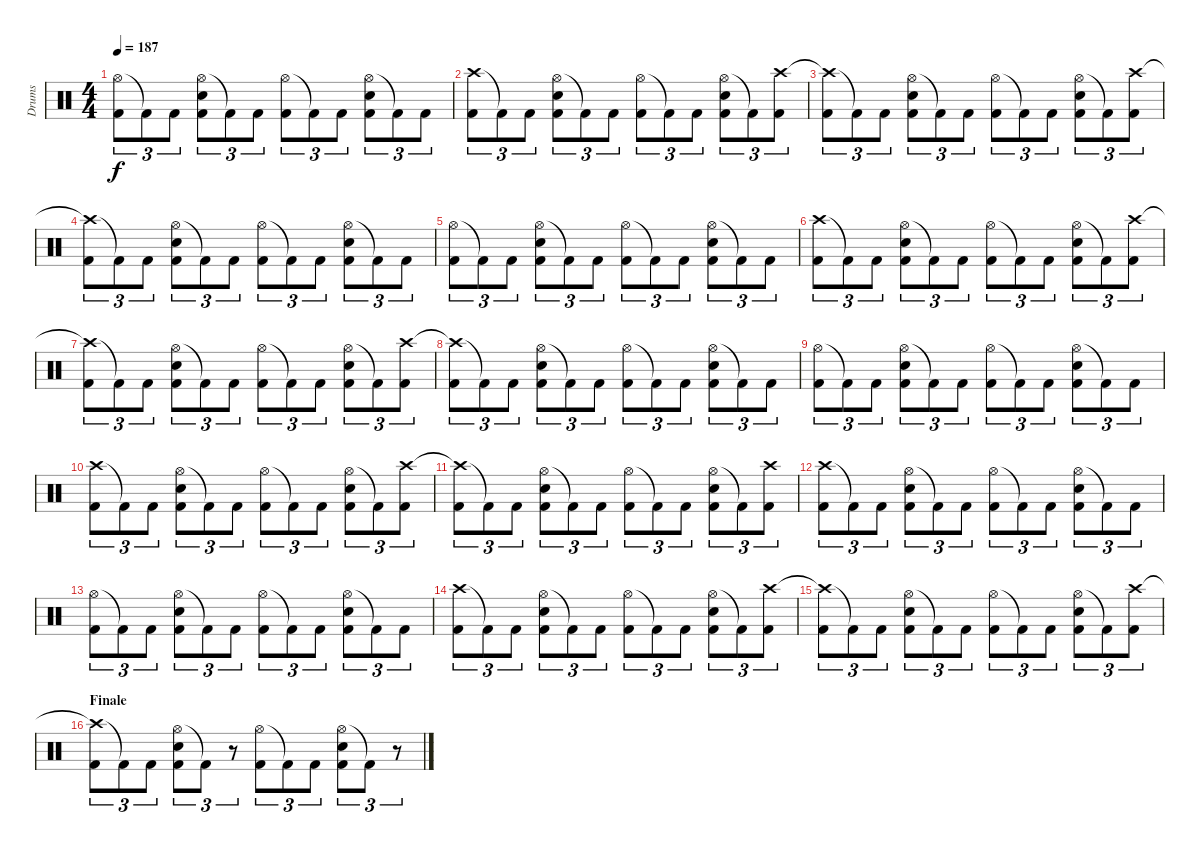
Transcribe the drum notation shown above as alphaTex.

\track ("Drums" "Drums") {instrument percussion}
\staff {score}
\articulation defaults
\ts (4 4)
\tempo 187
\clef neutral
\ks c
("Hi-Hat (open)" "Kick (hit) 2").8{tu (3 2) dy f} "Kick (hit) 2"{t}.8{tu (3 2)} "Kick (hit) 2".8{tu (3 2)} ("Hi-Hat (open)" "Snare (hit) 2" "Kick (hit) 2").8{tu (3 2)} "Kick (hit) 2"{t}.8{tu (3 2)} "Kick (hit) 2".8{tu (3 2)} ("Hi-Hat (open)" "Kick (hit) 2").8{tu (3 2)} "Kick (hit) 2"{t}.8{tu (3 2)} "Kick (hit) 2".8{tu (3 2)} ("Hi-Hat (open)" "Snare (hit) 2" "Kick (hit) 2").8{tu (3 2)} "Kick (hit) 2"{t}.8{tu (3 2)} "Kick (hit) 2".8{tu (3 2)} |
("Crash high (hit)" "Kick (hit) 2").8{tu (3 2)} "Kick (hit) 2"{t}.8{tu (3 2)} "Kick (hit) 2".8{tu (3 2)} ("Hi-Hat (open)" "Snare (hit) 2" "Kick (hit) 2").8{tu (3 2)} "Kick (hit) 2"{t}.8{tu (3 2)} "Kick (hit) 2".8{tu (3 2)} ("Hi-Hat (open)" "Kick (hit) 2").8{tu (3 2)} "Kick (hit) 2"{t}.8{tu (3 2)} "Kick (hit) 2".8{tu (3 2)} ("Hi-Hat (open)" "Snare (hit) 2" "Kick (hit) 2").8{tu (3 2)} "Kick (hit) 2"{t}.8{tu (3 2)} ("Crash high (hit)" "Kick (hit) 2").8{tu (3 2)} |
("Crash high (hit)"{t} "Kick (hit) 2").8{tu (3 2)} "Kick (hit) 2"{t}.8{tu (3 2)} "Kick (hit) 2".8{tu (3 2)} ("Hi-Hat (open)" "Snare (hit) 2" "Kick (hit) 2").8{tu (3 2)} "Kick (hit) 2"{t}.8{tu (3 2)} "Kick (hit) 2".8{tu (3 2)} ("Hi-Hat (open)" "Kick (hit) 2").8{tu (3 2)} "Kick (hit) 2"{t}.8{tu (3 2)} "Kick (hit) 2".8{tu (3 2)} ("Hi-Hat (open)" "Snare (hit) 2" "Kick (hit) 2").8{tu (3 2)} "Kick (hit) 2"{t}.8{tu (3 2)} ("Crash high (hit)" "Kick (hit) 2").8{tu (3 2)} |
("Crash high (hit)"{t} "Kick (hit) 2").8{tu (3 2)} "Kick (hit) 2"{t}.8{tu (3 2)} "Kick (hit) 2".8{tu (3 2)} ("Hi-Hat (open)" "Snare (hit) 2" "Kick (hit) 2").8{tu (3 2)} "Kick (hit) 2"{t}.8{tu (3 2)} "Kick (hit) 2".8{tu (3 2)} ("Hi-Hat (open)" "Kick (hit) 2").8{tu (3 2)} "Kick (hit) 2"{t}.8{tu (3 2)} "Kick (hit) 2".8{tu (3 2)} ("Hi-Hat (open)" "Snare (hit) 2" "Kick (hit) 2").8{tu (3 2)} "Kick (hit) 2"{t}.8{tu (3 2)} "Kick (hit) 2".8{tu (3 2)} |
("Hi-Hat (open)" "Kick (hit) 2").8{tu (3 2)} "Kick (hit) 2"{t}.8{tu (3 2)} "Kick (hit) 2".8{tu (3 2)} ("Hi-Hat (open)" "Snare (hit) 2" "Kick (hit) 2").8{tu (3 2)} "Kick (hit) 2"{t}.8{tu (3 2)} "Kick (hit) 2".8{tu (3 2)} ("Hi-Hat (open)" "Kick (hit) 2").8{tu (3 2)} "Kick (hit) 2"{t}.8{tu (3 2)} "Kick (hit) 2".8{tu (3 2)} ("Hi-Hat (open)" "Snare (hit) 2" "Kick (hit) 2").8{tu (3 2)} "Kick (hit) 2"{t}.8{tu (3 2)} "Kick (hit) 2".8{tu (3 2)} |
("Crash high (hit)" "Kick (hit) 2").8{tu (3 2)} "Kick (hit) 2"{t}.8{tu (3 2)} "Kick (hit) 2".8{tu (3 2)} ("Hi-Hat (open)" "Snare (hit) 2" "Kick (hit) 2").8{tu (3 2)} "Kick (hit) 2"{t}.8{tu (3 2)} "Kick (hit) 2".8{tu (3 2)} ("Hi-Hat (open)" "Kick (hit) 2").8{tu (3 2)} "Kick (hit) 2"{t}.8{tu (3 2)} "Kick (hit) 2".8{tu (3 2)} ("Hi-Hat (open)" "Snare (hit) 2" "Kick (hit) 2").8{tu (3 2)} "Kick (hit) 2"{t}.8{tu (3 2)} ("Crash high (hit)" "Kick (hit) 2").8{tu (3 2)} |
("Crash high (hit)"{t} "Kick (hit) 2").8{tu (3 2)} "Kick (hit) 2"{t}.8{tu (3 2)} "Kick (hit) 2".8{tu (3 2)} ("Hi-Hat (open)" "Snare (hit) 2" "Kick (hit) 2").8{tu (3 2)} "Kick (hit) 2"{t}.8{tu (3 2)} "Kick (hit) 2".8{tu (3 2)} ("Hi-Hat (open)" "Kick (hit) 2").8{tu (3 2)} "Kick (hit) 2"{t}.8{tu (3 2)} "Kick (hit) 2".8{tu (3 2)} ("Hi-Hat (open)" "Snare (hit) 2" "Kick (hit) 2").8{tu (3 2)} "Kick (hit) 2"{t}.8{tu (3 2)} ("Crash high (hit)" "Kick (hit) 2").8{tu (3 2)} |
("Crash high (hit)"{t} "Kick (hit) 2").8{tu (3 2)} "Kick (hit) 2"{t}.8{tu (3 2)} "Kick (hit) 2".8{tu (3 2)} ("Hi-Hat (open)" "Snare (hit) 2" "Kick (hit) 2").8{tu (3 2)} "Kick (hit) 2"{t}.8{tu (3 2)} "Kick (hit) 2".8{tu (3 2)} ("Hi-Hat (open)" "Kick (hit) 2").8{tu (3 2)} "Kick (hit) 2"{t}.8{tu (3 2)} "Kick (hit) 2".8{tu (3 2)} ("Hi-Hat (open)" "Snare (hit) 2" "Kick (hit) 2").8{tu (3 2)} "Kick (hit) 2"{t}.8{tu (3 2)} "Kick (hit) 2".8{tu (3 2)} |
("Hi-Hat (open)" "Kick (hit) 2").8{tu (3 2)} "Kick (hit) 2"{t}.8{tu (3 2)} "Kick (hit) 2".8{tu (3 2)} ("Hi-Hat (open)" "Snare (hit) 2" "Kick (hit) 2").8{tu (3 2)} "Kick (hit) 2"{t}.8{tu (3 2)} "Kick (hit) 2".8{tu (3 2)} ("Hi-Hat (open)" "Kick (hit) 2").8{tu (3 2)} "Kick (hit) 2"{t}.8{tu (3 2)} "Kick (hit) 2".8{tu (3 2)} ("Hi-Hat (open)" "Snare (hit) 2" "Kick (hit) 2").8{tu (3 2)} "Kick (hit) 2"{t}.8{tu (3 2)} "Kick (hit) 2".8{tu (3 2)} |
("Crash high (hit)" "Kick (hit) 2").8{tu (3 2)} "Kick (hit) 2"{t}.8{tu (3 2)} "Kick (hit) 2".8{tu (3 2)} ("Hi-Hat (open)" "Snare (hit) 2" "Kick (hit) 2").8{tu (3 2)} "Kick (hit) 2"{t}.8{tu (3 2)} "Kick (hit) 2".8{tu (3 2)} ("Hi-Hat (open)" "Kick (hit) 2").8{tu (3 2)} "Kick (hit) 2"{t}.8{tu (3 2)} "Kick (hit) 2".8{tu (3 2)} ("Hi-Hat (open)" "Snare (hit) 2" "Kick (hit) 2").8{tu (3 2)} "Kick (hit) 2"{t}.8{tu (3 2)} ("Crash high (hit)" "Kick (hit) 2").8{tu (3 2)} |
("Crash high (hit)"{t} "Kick (hit) 2").8{tu (3 2)} "Kick (hit) 2"{t}.8{tu (3 2)} "Kick (hit) 2".8{tu (3 2)} ("Hi-Hat (open)" "Snare (hit) 2" "Kick (hit) 2").8{tu (3 2)} "Kick (hit) 2"{t}.8{tu (3 2)} "Kick (hit) 2".8{tu (3 2)} ("Hi-Hat (open)" "Kick (hit) 2").8{tu (3 2)} "Kick (hit) 2"{t}.8{tu (3 2)} "Kick (hit) 2".8{tu (3 2)} ("Hi-Hat (open)" "Snare (hit) 2" "Kick (hit) 2").8{tu (3 2)} "Kick (hit) 2"{t}.8{tu (3 2)} ("Crash high (hit)" "Kick (hit) 2").8{tu (3 2)} |
("Crash high (hit)" "Kick (hit) 2").8{tu (3 2)} "Kick (hit) 2"{t}.8{tu (3 2)} "Kick (hit) 2".8{tu (3 2)} ("Hi-Hat (open)" "Snare (hit) 2" "Kick (hit) 2").8{tu (3 2)} "Kick (hit) 2"{t}.8{tu (3 2)} "Kick (hit) 2".8{tu (3 2)} ("Hi-Hat (open)" "Kick (hit) 2").8{tu (3 2)} "Kick (hit) 2"{t}.8{tu (3 2)} "Kick (hit) 2".8{tu (3 2)} ("Hi-Hat (open)" "Snare (hit) 2" "Kick (hit) 2").8{tu (3 2)} "Kick (hit) 2"{t}.8{tu (3 2)} "Kick (hit) 2".8{tu (3 2)} |
("Hi-Hat (open)" "Kick (hit) 2").8{tu (3 2)} "Kick (hit) 2"{t}.8{tu (3 2)} "Kick (hit) 2".8{tu (3 2)} ("Hi-Hat (open)" "Snare (hit) 2" "Kick (hit) 2").8{tu (3 2)} "Kick (hit) 2"{t}.8{tu (3 2)} "Kick (hit) 2".8{tu (3 2)} ("Hi-Hat (open)" "Kick (hit) 2").8{tu (3 2)} "Kick (hit) 2"{t}.8{tu (3 2)} "Kick (hit) 2".8{tu (3 2)} ("Hi-Hat (open)" "Snare (hit) 2" "Kick (hit) 2").8{tu (3 2)} "Kick (hit) 2"{t}.8{tu (3 2)} "Kick (hit) 2".8{tu (3 2)} |
("Crash high (hit)" "Kick (hit) 2").8{tu (3 2)} "Kick (hit) 2"{t}.8{tu (3 2)} "Kick (hit) 2".8{tu (3 2)} ("Hi-Hat (open)" "Snare (hit) 2" "Kick (hit) 2").8{tu (3 2)} "Kick (hit) 2"{t}.8{tu (3 2)} "Kick (hit) 2".8{tu (3 2)} ("Hi-Hat (open)" "Kick (hit) 2").8{tu (3 2)} "Kick (hit) 2"{t}.8{tu (3 2)} "Kick (hit) 2".8{tu (3 2)} ("Hi-Hat (open)" "Snare (hit) 2" "Kick (hit) 2").8{tu (3 2)} "Kick (hit) 2"{t}.8{tu (3 2)} ("Crash high (hit)" "Kick (hit) 2").8{tu (3 2)} |
("Crash high (hit)"{t} "Kick (hit) 2").8{tu (3 2)} "Kick (hit) 2"{t}.8{tu (3 2)} "Kick (hit) 2".8{tu (3 2)} ("Hi-Hat (open)" "Snare (hit) 2" "Kick (hit) 2").8{tu (3 2)} "Kick (hit) 2"{t}.8{tu (3 2)} "Kick (hit) 2".8{tu (3 2)} ("Hi-Hat (open)" "Kick (hit) 2").8{tu (3 2)} "Kick (hit) 2"{t}.8{tu (3 2)} "Kick (hit) 2".8{tu (3 2)} ("Hi-Hat (open)" "Snare (hit) 2" "Kick (hit) 2").8{tu (3 2)} "Kick (hit) 2"{t}.8{tu (3 2)} ("Crash high (hit)" "Kick (hit) 2").8{tu (3 2)} |
\section ("" "Finale")
("Crash high (hit)"{t} "Kick (hit) 2").8{tu (3 2)} "Kick (hit) 2"{t}.8{tu (3 2)} "Kick (hit) 2".8{tu (3 2)} ("Hi-Hat (open)" "Snare (hit) 2" "Kick (hit) 2").8{tu (3 2)} "Kick (hit) 2"{t}.8{tu (3 2)} r.8{tu (3 2)} ("Hi-Hat (open)" "Kick (hit) 2").8{tu (3 2)} "Kick (hit) 2"{t}.8{tu (3 2)} "Kick (hit) 2".8{tu (3 2)} ("Hi-Hat (open)" "Snare (hit) 2" "Kick (hit) 2").8{tu (3 2)} "Kick (hit) 2"{t}.8{tu (3 2)} r.8{tu (3 2)}
